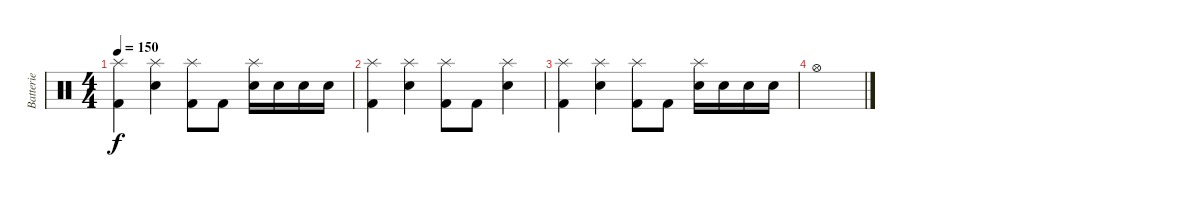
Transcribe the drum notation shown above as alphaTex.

\track ("Batterie" "Batterie") {instrument percussion}
\staff {score}
\articulation defaults
\ts (4 4)
\tempo 150
\clef neutral
\ks c
("Splash (hit)" "Kick (hit) 2").4{dy f} ("Splash (hit)" "Electric Snare (hit)").4 ("Splash (hit)" "Kick (hit) 2").8 "Kick (hit) 2".8 ("Splash (hit)" "Electric Snare (hit)").16 "Electric Snare (hit)".16 "Electric Snare (hit)".16 "Electric Snare (hit)".16 |
("Splash (hit)" "Kick (hit) 2").4 ("Splash (hit)" "Electric Snare (hit)").4 ("Splash (hit)" "Kick (hit) 2").8 "Kick (hit) 2".8 ("Splash (hit)" "Electric Snare (hit)").4 |
("Splash (hit)" "Kick (hit) 2").4 ("Splash (hit)" "Electric Snare (hit)").4 ("Splash (hit)" "Kick (hit) 2").8 "Kick (hit) 2".8 ("Splash (hit)" "Electric Snare (hit)").16 "Electric Snare (hit)".16 "Electric Snare (hit)".16 "Electric Snare (hit)".16 |
"Hi-Hat (open)".1
